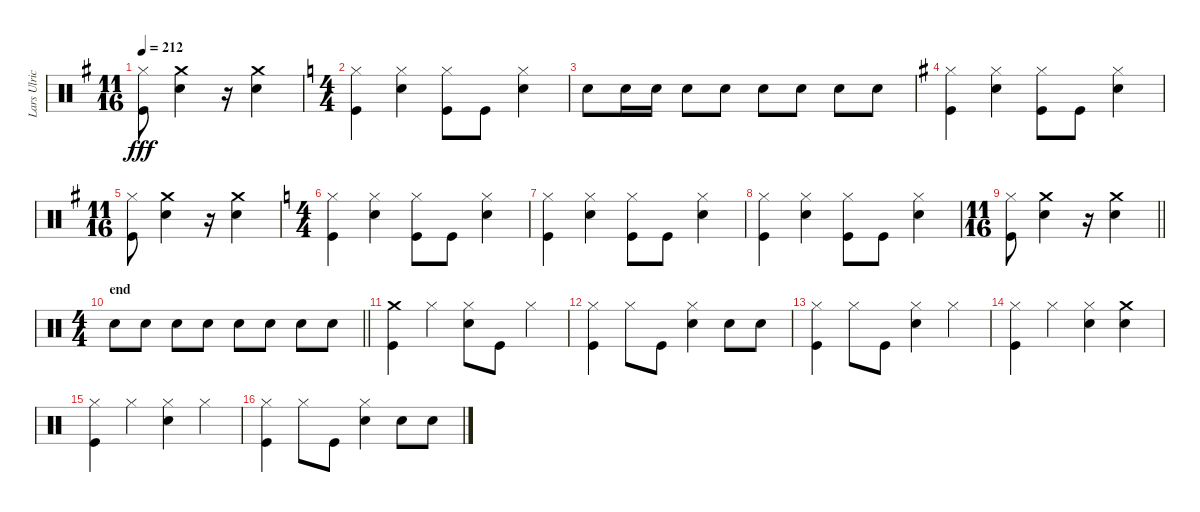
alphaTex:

\track ("Lars Ulrich" "Lars Ulric") {instrument percussion}
\staff {score}
\articulation defaults
\ts (11 16)
\tempo 212
\clef neutral
\ks g
("Hi-Hat (closed)" "Kick (hit)").8{dy fff} ("Snare (hit) 2" "Crash medium (hit)").4 r.16 ("Snare (hit) 2" "Crash medium (hit)").4 |
\ts (4 4)
\ks c
("Hi-Hat (closed)" "Kick (hit)").4 ("Snare (hit) 2" "Hi-Hat (closed)").4 ("Kick (hit)" "Hi-Hat (closed)").8 "Kick (hit)".8 ("Snare (hit) 2" "Hi-Hat (closed)").4 |
"Snare (hit) 2".8 "Snare (hit) 2".16 "Snare (hit) 2".16 "Snare (hit) 2".8 "Snare (hit) 2".8 "Snare (hit) 2".8 "Snare (hit) 2".8 "Snare (hit) 2".8 "Snare (hit) 2".8 |
\ks g
("Kick (hit)" "Hi-Hat (closed)").4 ("Hi-Hat (closed)" "Snare (hit) 2").4 ("Kick (hit)" "Hi-Hat (closed)").8 "Kick (hit)".8 ("Snare (hit) 2" "Hi-Hat (closed)").4 |
\ts (11 16)
("Hi-Hat (closed)" "Kick (hit)").8 ("Snare (hit) 2" "Crash medium (hit)").4 r.16 ("Snare (hit) 2" "Crash medium (hit)").4 |
\ts (4 4)
\ks c
("Kick (hit)" "Hi-Hat (closed)").4 ("Snare (hit) 2" "Hi-Hat (closed)").4 ("Kick (hit)" "Hi-Hat (closed)").8 "Kick (hit)".8 ("Snare (hit) 2" "Hi-Hat (closed)").4 |
("Hi-Hat (closed)" "Kick (hit)").4 ("Snare (hit) 2" "Hi-Hat (closed)").4 ("Hi-Hat (closed)" "Kick (hit)").8 "Kick (hit)".8 ("Snare (hit) 2" "Hi-Hat (closed)").4 |
("Hi-Hat (closed)" "Kick (hit)").4 ("Snare (hit) 2" "Hi-Hat (closed)").4 ("Kick (hit)" "Hi-Hat (closed)").8 "Kick (hit)".8 ("Hi-Hat (closed)" "Snare (hit) 2").4 |
\ts (11 16)
\barLineRight lightlight
("Hi-Hat (closed)" "Kick (hit)").8 ("Snare (hit) 2" "Crash medium (hit)").4 r.16 ("Snare (hit) 2" "Crash medium (hit)").4 |
\ts (4 4)
\section ("" "end")
\barLineRight lightlight "Snare (hit) 2".8 "Snare (hit) 2".8 "Snare (hit) 2".8 "Snare (hit) 2".8 "Snare (hit) 2".8 "Snare (hit) 2".8 "Snare (hit) 2".8 "Snare (hit) 2".8
|
("Kick (hit)" "Crash medium (hit)").4 "Hi-Hat (closed)".4 ("Snare (hit) 2" "Hi-Hat (closed)").8 "Kick (hit)".8 "Hi-Hat (closed)".4 |
("Kick (hit)" "Hi-Hat (closed)").4 "Hi-Hat (closed)".8 "Kick (hit)".8 ("Hi-Hat (closed)" "Snare (hit) 2").4 "Snare (hit) 2".8 "Snare (hit) 2".8 |
("Hi-Hat (closed)" "Kick (hit)").4 "Hi-Hat (closed)".8 "Kick (hit)".8 ("Snare (hit) 2" "Hi-Hat (closed)").4 "Hi-Hat (closed)".4 |
("Kick (hit)" "Hi-Hat (closed)").4 "Hi-Hat (closed)".4 ("Hi-Hat (closed)" "Snare (hit) 2").4 ("Snare (hit) 2" "Crash medium (hit)").4 |
("Kick (hit)" "Hi-Hat (closed)").4 "Hi-Hat (closed)".4 ("Snare (hit) 2" "Hi-Hat (closed)").4 "Hi-Hat (closed)".4 |
("Kick (hit)" "Hi-Hat (closed)").4 "Hi-Hat (closed)".8 "Kick (hit)".8 ("Snare (hit) 2" "Hi-Hat (closed)").4 "Snare (hit) 2".8 "Snare (hit) 2".8
